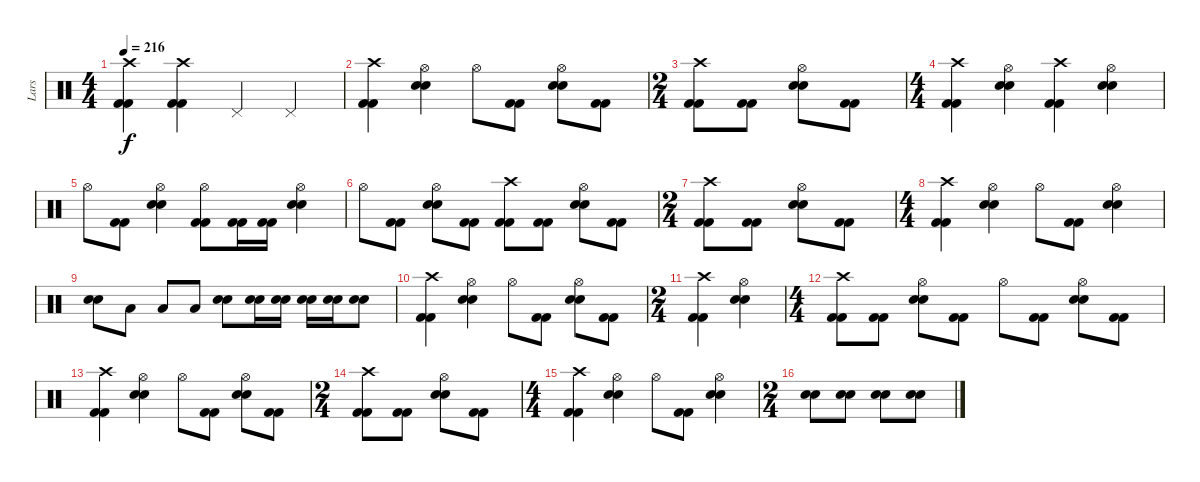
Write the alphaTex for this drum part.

\track ("Lars" "Lars") {instrument percussion}
\staff {score}
\articulation defaults
\ts (4 4)
\tempo 216
\clef neutral
\ks c
("Crash high (hit)" "Kick (hit) 2" "Kick (hit) 2").4{dy f} ("Crash high (hit)" "Kick (hit) 2" "Kick (hit) 2").4 "Pedal Hi-Hat (hit)".4 "Pedal Hi-Hat (hit)".4 |
("Crash high (hit)" "Kick (hit) 2" "Kick (hit) 2").4 ("Hi-Hat (open)" "Electric Snare (hit)" "Electric Snare (hit)").4 "Hi-Hat (open)".8 ("Kick (hit) 2" "Kick (hit) 2").8 ("Hi-Hat (open)" "Electric Snare (hit)" "Electric Snare (hit)").8 ("Kick (hit) 2" "Kick (hit) 2").8 |
\ts (2 4)
("Crash high (hit)" "Kick (hit) 2" "Kick (hit) 2").8 ("Kick (hit) 2" "Kick (hit) 2").8 ("Hi-Hat (open)" "Electric Snare (hit)" "Electric Snare (hit)").8 ("Kick (hit) 2" "Kick (hit) 2").8 |
\ts (4 4)
("Crash high (hit)" "Kick (hit) 2" "Kick (hit) 2").4 ("Hi-Hat (open)" "Electric Snare (hit)" "Electric Snare (hit)").4 ("Crash high (hit)" "Kick (hit) 2" "Kick (hit) 2").4 ("Hi-Hat (open)" "Electric Snare (hit)" "Electric Snare (hit)").4 |
"Hi-Hat (open)".8 ("Kick (hit) 2" "Kick (hit) 2").8 ("Hi-Hat (open)" "Electric Snare (hit)" "Electric Snare (hit)").4 ("Hi-Hat (open)" "Kick (hit) 2" "Kick (hit) 2").8 ("Kick (hit) 2" "Kick (hit) 2").16 ("Kick (hit) 2" "Kick (hit) 2").16 ("Hi-Hat (open)" "Electric Snare (hit)" "Electric Snare (hit)").4 |
"Hi-Hat (open)".8 ("Kick (hit) 2" "Kick (hit) 2").8 ("Hi-Hat (open)" "Electric Snare (hit)" "Electric Snare (hit)").8 ("Kick (hit) 2" "Kick (hit) 2").8 ("Crash high (hit)" "Kick (hit) 2" "Kick (hit) 2").8 ("Kick (hit) 2" "Kick (hit) 2").8 ("Hi-Hat (open)" "Electric Snare (hit)" "Electric Snare (hit)").8 ("Kick (hit) 2" "Kick (hit) 2").8 |
\ts (2 4)
("Crash high (hit)" "Kick (hit) 2" "Kick (hit) 2").8 ("Kick (hit) 2" "Kick (hit) 2").8 ("Hi-Hat (open)" "Electric Snare (hit)" "Electric Snare (hit)").8 ("Kick (hit) 2" "Kick (hit) 2").8 |
\ts (4 4)
("Crash high (hit)" "Kick (hit) 2" "Kick (hit) 2").4 ("Hi-Hat (open)" "Electric Snare (hit)" "Electric Snare (hit)").4 "Hi-Hat (open)".8 ("Kick (hit) 2" "Kick (hit) 2").8 ("Hi-Hat (open)" "Electric Snare (hit)" "Electric Snare (hit)").4 |
("Electric Snare (hit)" "Electric Snare (hit)").8 "Low Tom (hit)".8 "Low Tom (hit)".8 "Low Tom (hit)".8 ("Electric Snare (hit)" "Electric Snare (hit)").8 ("Electric Snare (hit)" "Electric Snare (hit)").16 ("Electric Snare (hit)" "Electric Snare (hit)").16 ("Electric Snare (hit)" "Electric Snare (hit)").16 ("Electric Snare (hit)" "Electric Snare (hit)").16 ("Electric Snare (hit)" "Electric Snare (hit)").8 |
("Crash high (hit)" "Kick (hit) 2" "Kick (hit) 2").4 ("Hi-Hat (open)" "Electric Snare (hit)" "Electric Snare (hit)").4 "Hi-Hat (open)".8 ("Kick (hit) 2" "Kick (hit) 2").8 ("Hi-Hat (open)" "Electric Snare (hit)" "Electric Snare (hit)").8 ("Kick (hit) 2" "Kick (hit) 2").8 |
\ts (2 4)
("Crash high (hit)" "Kick (hit) 2" "Kick (hit) 2").4 ("Hi-Hat (open)" "Electric Snare (hit)" "Electric Snare (hit)").4 |
\ts (4 4)
("Crash high (hit)" "Kick (hit) 2" "Kick (hit) 2").8 ("Kick (hit) 2" "Kick (hit) 2").8 ("Hi-Hat (open)" "Electric Snare (hit)" "Electric Snare (hit)").8 ("Kick (hit) 2" "Kick (hit) 2").8 "Hi-Hat (open)".8 ("Kick (hit) 2" "Kick (hit) 2").8 ("Hi-Hat (open)" "Electric Snare (hit)" "Electric Snare (hit)").8 ("Kick (hit) 2" "Kick (hit) 2").8 |
("Crash high (hit)" "Kick (hit) 2" "Kick (hit) 2").4 ("Hi-Hat (open)" "Electric Snare (hit)" "Electric Snare (hit)").4 "Hi-Hat (open)".8 ("Kick (hit) 2" "Kick (hit) 2").8 ("Hi-Hat (open)" "Electric Snare (hit)" "Electric Snare (hit)").8 ("Kick (hit) 2" "Kick (hit) 2").8 |
\ts (2 4)
("Crash high (hit)" "Kick (hit) 2" "Kick (hit) 2").8 ("Kick (hit) 2" "Kick (hit) 2").8 ("Hi-Hat (open)" "Electric Snare (hit)" "Electric Snare (hit)").8 ("Kick (hit) 2" "Kick (hit) 2").8 |
\ts (4 4)
("Crash high (hit)" "Kick (hit) 2" "Kick (hit) 2").4 ("Hi-Hat (open)" "Electric Snare (hit)" "Electric Snare (hit)").4 "Hi-Hat (open)".8 ("Kick (hit) 2" "Kick (hit) 2").8 ("Hi-Hat (open)" "Electric Snare (hit)" "Electric Snare (hit)").4 |
\ts (2 4)
("Electric Snare (hit)" "Electric Snare (hit)").8 ("Electric Snare (hit)" "Electric Snare (hit)").8 ("Electric Snare (hit)" "Electric Snare (hit)").8 ("Electric Snare (hit)" "Electric Snare (hit)").8
